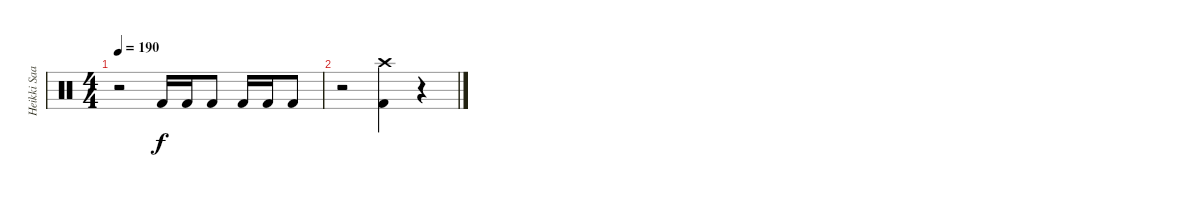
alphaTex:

\track ("Heikki Saari" "Heikki Saa") {instrument percussion}
\staff {score}
\articulation defaults
\ts (4 4)
\tempo 190
\clef neutral
\ks c
r.2{dy f} "Kick (hit) 2".16 "Kick (hit) 2".16 "Kick (hit) 2".8 "Kick (hit) 2".16 "Kick (hit) 2".16 "Kick (hit) 2".8 |
r.2 ("Crash high (hit)" "Kick (hit) 2").4 r.4
